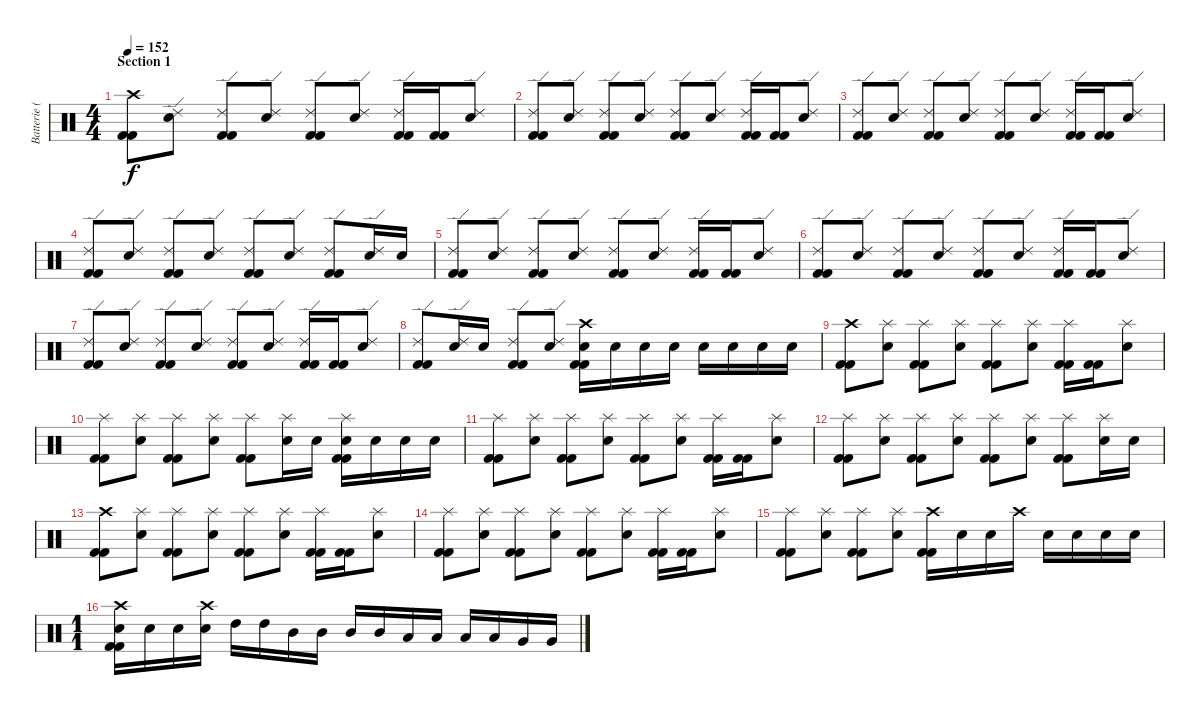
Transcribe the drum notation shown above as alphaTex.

\track ("Batterie (Ben Graves)" "Batterie (") {instrument percussion}
\staff {score}
\articulation defaults
\ts (4 4)
\section ("" "Section 1")
\tempo 152
\clef neutral
\ks c
("Crash high (hit)" "Kick (hit) 2" "Kick (hit) 2").8{dy f} ("Ride (edge) 2" "Electric Snare (hit)").8 ("Ride (edge) 2" "Kick (hit) 2" "Kick (hit) 2").8 ("Ride (edge) 2" "Electric Snare (hit)").8 ("Ride (edge) 2" "Kick (hit) 2" "Kick (hit) 2").8 ("Ride (edge) 2" "Electric Snare (hit)").8 ("Ride (edge) 2" "Kick (hit) 2" "Kick (hit) 2").16 ("Kick (hit) 2" "Kick (hit) 2").16 ("Ride (edge) 2" "Electric Snare (hit)").8 |
("Ride (edge) 2" "Kick (hit) 2" "Kick (hit) 2").8 ("Ride (edge) 2" "Electric Snare (hit)").8 ("Ride (edge) 2" "Kick (hit) 2" "Kick (hit) 2").8 ("Ride (edge) 2" "Electric Snare (hit)").8 ("Ride (edge) 2" "Kick (hit) 2" "Kick (hit) 2").8 ("Ride (edge) 2" "Electric Snare (hit)").8 ("Ride (edge) 2" "Kick (hit) 2" "Kick (hit) 2").16 ("Kick (hit) 2" "Kick (hit) 2").16 ("Ride (edge) 2" "Electric Snare (hit)").8 |
("Ride (edge) 2" "Kick (hit) 2" "Kick (hit) 2").8 ("Ride (edge) 2" "Electric Snare (hit)").8 ("Ride (edge) 2" "Kick (hit) 2" "Kick (hit) 2").8 ("Ride (edge) 2" "Electric Snare (hit)").8 ("Ride (edge) 2" "Kick (hit) 2" "Kick (hit) 2").8 ("Ride (edge) 2" "Electric Snare (hit)").8 ("Ride (edge) 2" "Kick (hit) 2" "Kick (hit) 2").16 ("Kick (hit) 2" "Kick (hit) 2").16 ("Ride (edge) 2" "Electric Snare (hit)").8 |
("Ride (edge) 2" "Kick (hit) 2" "Kick (hit) 2").8 ("Ride (edge) 2" "Electric Snare (hit)").8 ("Ride (edge) 2" "Kick (hit) 2" "Kick (hit) 2").8 ("Ride (edge) 2" "Electric Snare (hit)").8 ("Ride (edge) 2" "Kick (hit) 2" "Kick (hit) 2").8 ("Ride (edge) 2" "Electric Snare (hit)").8 ("Ride (edge) 2" "Kick (hit) 2" "Kick (hit) 2").8 ("Ride (edge) 2" "Electric Snare (hit)").16 "Electric Snare (hit)".16 |
("Ride (edge) 2" "Kick (hit) 2" "Kick (hit) 2").8 ("Ride (edge) 2" "Electric Snare (hit)").8 ("Ride (edge) 2" "Kick (hit) 2" "Kick (hit) 2").8 ("Ride (edge) 2" "Electric Snare (hit)").8 ("Ride (edge) 2" "Kick (hit) 2" "Kick (hit) 2").8 ("Ride (edge) 2" "Electric Snare (hit)").8 ("Ride (edge) 2" "Kick (hit) 2" "Kick (hit) 2").16 ("Kick (hit) 2" "Kick (hit) 2").16 ("Ride (edge) 2" "Electric Snare (hit)").8 |
("Ride (edge) 2" "Kick (hit) 2" "Kick (hit) 2").8 ("Ride (edge) 2" "Electric Snare (hit)").8 ("Ride (edge) 2" "Kick (hit) 2" "Kick (hit) 2").8 ("Ride (edge) 2" "Electric Snare (hit)").8 ("Ride (edge) 2" "Kick (hit) 2" "Kick (hit) 2").8 ("Ride (edge) 2" "Electric Snare (hit)").8 ("Ride (edge) 2" "Kick (hit) 2" "Kick (hit) 2").16 ("Kick (hit) 2" "Kick (hit) 2").16 ("Ride (edge) 2" "Electric Snare (hit)").8 |
("Ride (edge) 2" "Kick (hit) 2" "Kick (hit) 2").8 ("Ride (edge) 2" "Electric Snare (hit)").8 ("Ride (edge) 2" "Kick (hit) 2" "Kick (hit) 2").8 ("Ride (edge) 2" "Electric Snare (hit)").8 ("Ride (edge) 2" "Kick (hit) 2" "Kick (hit) 2").8 ("Ride (edge) 2" "Electric Snare (hit)").8 ("Ride (edge) 2" "Kick (hit) 2" "Kick (hit) 2").16 ("Kick (hit) 2" "Kick (hit) 2").16 ("Ride (edge) 2" "Electric Snare (hit)").8 |
("Ride (edge) 2" "Kick (hit) 2" "Kick (hit) 2").8 ("Ride (edge) 2" "Electric Snare (hit)").16 "Electric Snare (hit)".16 ("Ride (edge) 2" "Kick (hit) 2" "Kick (hit) 2").8 ("Ride (edge) 2" "Electric Snare (hit)").8 ("Crash high (hit)" "Electric Snare (hit)" "Kick (hit) 2" "Kick (hit) 2").16 "Electric Snare (hit)".16 "Electric Snare (hit)".16 "Electric Snare (hit)".16 "Electric Snare (hit)".16 "Electric Snare (hit)".16 "Electric Snare (hit)".16 "Electric Snare (hit)".16 |
("Crash high (hit)" "Kick (hit) 2" "Kick (hit) 2").8 ("Splash (hit)" "Electric Snare (hit)").8 ("Splash (hit)" "Kick (hit) 2" "Kick (hit) 2").8 ("Splash (hit)" "Electric Snare (hit)").8 ("Splash (hit)" "Kick (hit) 2" "Kick (hit) 2").8 ("Splash (hit)" "Electric Snare (hit)").8 ("Splash (hit)" "Kick (hit) 2" "Kick (hit) 2").16 ("Kick (hit) 2" "Kick (hit) 2").16 ("Splash (hit)" "Electric Snare (hit)").8 |
("Splash (hit)" "Kick (hit) 2" "Kick (hit) 2").8 ("Splash (hit)" "Electric Snare (hit)").8 ("Splash (hit)" "Kick (hit) 2" "Kick (hit) 2").8 ("Splash (hit)" "Electric Snare (hit)").8 ("Splash (hit)" "Kick (hit) 2" "Kick (hit) 2").8 ("Splash (hit)" "Electric Snare (hit)").16 "Electric Snare (hit)".16 ("Splash (hit)" "Electric Snare (hit)" "Kick (hit) 2" "Kick (hit) 2").16 "Electric Snare (hit)".16 "Electric Snare (hit)".16 "Electric Snare (hit)".16 |
("Splash (hit)" "Kick (hit) 2" "Kick (hit) 2").8 ("Splash (hit)" "Electric Snare (hit)").8 ("Splash (hit)" "Kick (hit) 2" "Kick (hit) 2").8 ("Splash (hit)" "Electric Snare (hit)").8 ("Splash (hit)" "Kick (hit) 2" "Kick (hit) 2").8 ("Splash (hit)" "Electric Snare (hit)").8 ("Splash (hit)" "Kick (hit) 2" "Kick (hit) 2").16 ("Kick (hit) 2" "Kick (hit) 2").16 ("Splash (hit)" "Electric Snare (hit)").8 |
("Splash (hit)" "Kick (hit) 2" "Kick (hit) 2").8 ("Splash (hit)" "Electric Snare (hit)").8 ("Splash (hit)" "Kick (hit) 2" "Kick (hit) 2").8 ("Splash (hit)" "Electric Snare (hit)").8 ("Splash (hit)" "Kick (hit) 2" "Kick (hit) 2").8 ("Splash (hit)" "Electric Snare (hit)").8 ("Splash (hit)" "Kick (hit) 2" "Kick (hit) 2").8 ("Splash (hit)" "Electric Snare (hit)").16 "Electric Snare (hit)".16 |
("Crash high (hit)" "Kick (hit) 2" "Kick (hit) 2").8 ("Splash (hit)" "Electric Snare (hit)").8 ("Splash (hit)" "Kick (hit) 2" "Kick (hit) 2").8 ("Splash (hit)" "Electric Snare (hit)").8 ("Splash (hit)" "Kick (hit) 2" "Kick (hit) 2").8 ("Splash (hit)" "Electric Snare (hit)").8 ("Splash (hit)" "Kick (hit) 2" "Kick (hit) 2").16 ("Kick (hit) 2" "Kick (hit) 2").16 ("Splash (hit)" "Electric Snare (hit)").8 |
("Splash (hit)" "Kick (hit) 2" "Kick (hit) 2").8 ("Splash (hit)" "Electric Snare (hit)").8 ("Splash (hit)" "Kick (hit) 2" "Kick (hit) 2").8 ("Splash (hit)" "Electric Snare (hit)").8 ("Splash (hit)" "Kick (hit) 2" "Kick (hit) 2").8 ("Splash (hit)" "Electric Snare (hit)").8 ("Splash (hit)" "Kick (hit) 2" "Kick (hit) 2").16 ("Kick (hit) 2" "Kick (hit) 2").16 ("Splash (hit)" "Electric Snare (hit)").8 |
("Splash (hit)" "Kick (hit) 2" "Kick (hit) 2").8 ("Splash (hit)" "Electric Snare (hit)").8 ("Splash (hit)" "Kick (hit) 2" "Kick (hit) 2").8 ("Splash (hit)" "Electric Snare (hit)").8 ("Crash high (hit)" "Kick (hit) 2" "Kick (hit) 2").16 "Electric Snare (hit)".16 "Electric Snare (hit)".16 "Crash high (hit)".16 "Electric Snare (hit)".16 "Electric Snare (hit)".16 "Electric Snare (hit)".16 "Electric Snare (hit)".16 |
\ts (1 1)
("Crash high (hit)" "Electric Snare (hit)" "Kick (hit) 2" "Kick (hit) 2").16 "Electric Snare (hit)".16 "Electric Snare (hit)".16 ("Crash high (hit)" "Electric Snare (hit)").16 "High Tom (hit)".16 "High Tom (hit)".16 "Mid Tom (hit)".16 "Mid Tom (hit)".16 "Mid Tom (hit)".16 "Mid Tom (hit)".16 "Low Tom (hit)".16 "Low Tom (hit)".16 "Low Tom (hit)".16 "Low Tom (hit)".16 "Very Low Tom (hit)".16 "Very Low Tom (hit)".16
